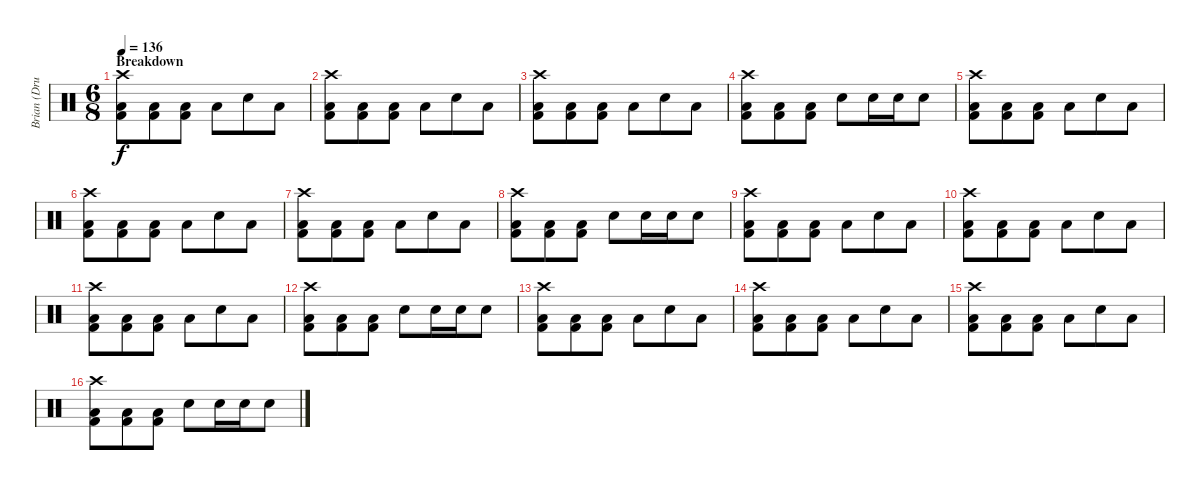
\track ("Brian (Drums)" "Brian (Dru") {instrument percussion}
\staff {score}
\articulation defaults
\ts (6 8)
\section ("" "Breakdown")
\tempo 136
\clef neutral
\ks c
("Crash high (hit)" "Low Tom (hit)" "Kick (hit) 2").8{dy f} ("Low Tom (hit)" "Kick (hit) 2").8 ("Low Tom (hit)" "Kick (hit) 2").8 "Low Tom (hit)".8 "Electric Snare (hit)".8 "Low Tom (hit)".8 |
("Crash high (hit)" "Low Tom (hit)" "Kick (hit) 2").8 ("Low Tom (hit)" "Kick (hit) 2").8 ("Low Tom (hit)" "Kick (hit) 2").8 "Low Tom (hit)".8 "Electric Snare (hit)".8 "Low Tom (hit)".8 |
("Crash high (hit)" "Low Tom (hit)" "Kick (hit) 2").8 ("Low Tom (hit)" "Kick (hit) 2").8 ("Low Tom (hit)" "Kick (hit) 2").8 "Low Tom (hit)".8 "Electric Snare (hit)".8 "Low Tom (hit)".8 |
("Crash high (hit)" "Low Tom (hit)" "Kick (hit) 2").8 ("Low Tom (hit)" "Kick (hit) 2").8 ("Low Tom (hit)" "Kick (hit) 2").8 "Electric Snare (hit)".8 "Electric Snare (hit)".16 "Electric Snare (hit)".16 "Electric Snare (hit)".8 |
("Crash high (hit)" "Low Tom (hit)" "Kick (hit) 2").8 ("Low Tom (hit)" "Kick (hit) 2").8 ("Low Tom (hit)" "Kick (hit) 2").8 "Low Tom (hit)".8 "Electric Snare (hit)".8 "Low Tom (hit)".8 |
("Crash high (hit)" "Low Tom (hit)" "Kick (hit) 2").8 ("Low Tom (hit)" "Kick (hit) 2").8 ("Low Tom (hit)" "Kick (hit) 2").8 "Low Tom (hit)".8 "Electric Snare (hit)".8 "Low Tom (hit)".8 |
("Crash high (hit)" "Low Tom (hit)" "Kick (hit) 2").8 ("Low Tom (hit)" "Kick (hit) 2").8 ("Low Tom (hit)" "Kick (hit) 2").8 "Low Tom (hit)".8 "Electric Snare (hit)".8 "Low Tom (hit)".8 |
("Crash high (hit)" "Low Tom (hit)" "Kick (hit) 2").8 ("Low Tom (hit)" "Kick (hit) 2").8 ("Low Tom (hit)" "Kick (hit) 2").8 "Electric Snare (hit)".8 "Electric Snare (hit)".16 "Electric Snare (hit)".16 "Electric Snare (hit)".8 |
("Crash high (hit)" "Low Tom (hit)" "Kick (hit) 2").8 ("Low Tom (hit)" "Kick (hit) 2").8 ("Low Tom (hit)" "Kick (hit) 2").8 "Low Tom (hit)".8 "Electric Snare (hit)".8 "Low Tom (hit)".8 |
("Crash high (hit)" "Low Tom (hit)" "Kick (hit) 2").8 ("Low Tom (hit)" "Kick (hit) 2").8 ("Low Tom (hit)" "Kick (hit) 2").8 "Low Tom (hit)".8 "Electric Snare (hit)".8 "Low Tom (hit)".8 |
("Crash high (hit)" "Low Tom (hit)" "Kick (hit) 2").8 ("Low Tom (hit)" "Kick (hit) 2").8 ("Low Tom (hit)" "Kick (hit) 2").8 "Low Tom (hit)".8 "Electric Snare (hit)".8 "Low Tom (hit)".8 |
("Crash high (hit)" "Low Tom (hit)" "Kick (hit) 2").8 ("Low Tom (hit)" "Kick (hit) 2").8 ("Low Tom (hit)" "Kick (hit) 2").8 "Electric Snare (hit)".8 "Electric Snare (hit)".16 "Electric Snare (hit)".16 "Electric Snare (hit)".8 |
("Crash high (hit)" "Low Tom (hit)" "Kick (hit) 2").8 ("Low Tom (hit)" "Kick (hit) 2").8 ("Low Tom (hit)" "Kick (hit) 2").8 "Low Tom (hit)".8 "Electric Snare (hit)".8 "Low Tom (hit)".8 |
("Crash high (hit)" "Low Tom (hit)" "Kick (hit) 2").8 ("Low Tom (hit)" "Kick (hit) 2").8 ("Low Tom (hit)" "Kick (hit) 2").8 "Low Tom (hit)".8 "Electric Snare (hit)".8 "Low Tom (hit)".8 |
("Crash high (hit)" "Low Tom (hit)" "Kick (hit) 2").8 ("Low Tom (hit)" "Kick (hit) 2").8 ("Low Tom (hit)" "Kick (hit) 2").8 "Low Tom (hit)".8 "Electric Snare (hit)".8 "Low Tom (hit)".8 |
("Crash high (hit)" "Low Tom (hit)" "Kick (hit) 2").8 ("Low Tom (hit)" "Kick (hit) 2").8 ("Low Tom (hit)" "Kick (hit) 2").8 "Electric Snare (hit)".8 "Electric Snare (hit)".16 "Electric Snare (hit)".16 "Electric Snare (hit)".8
